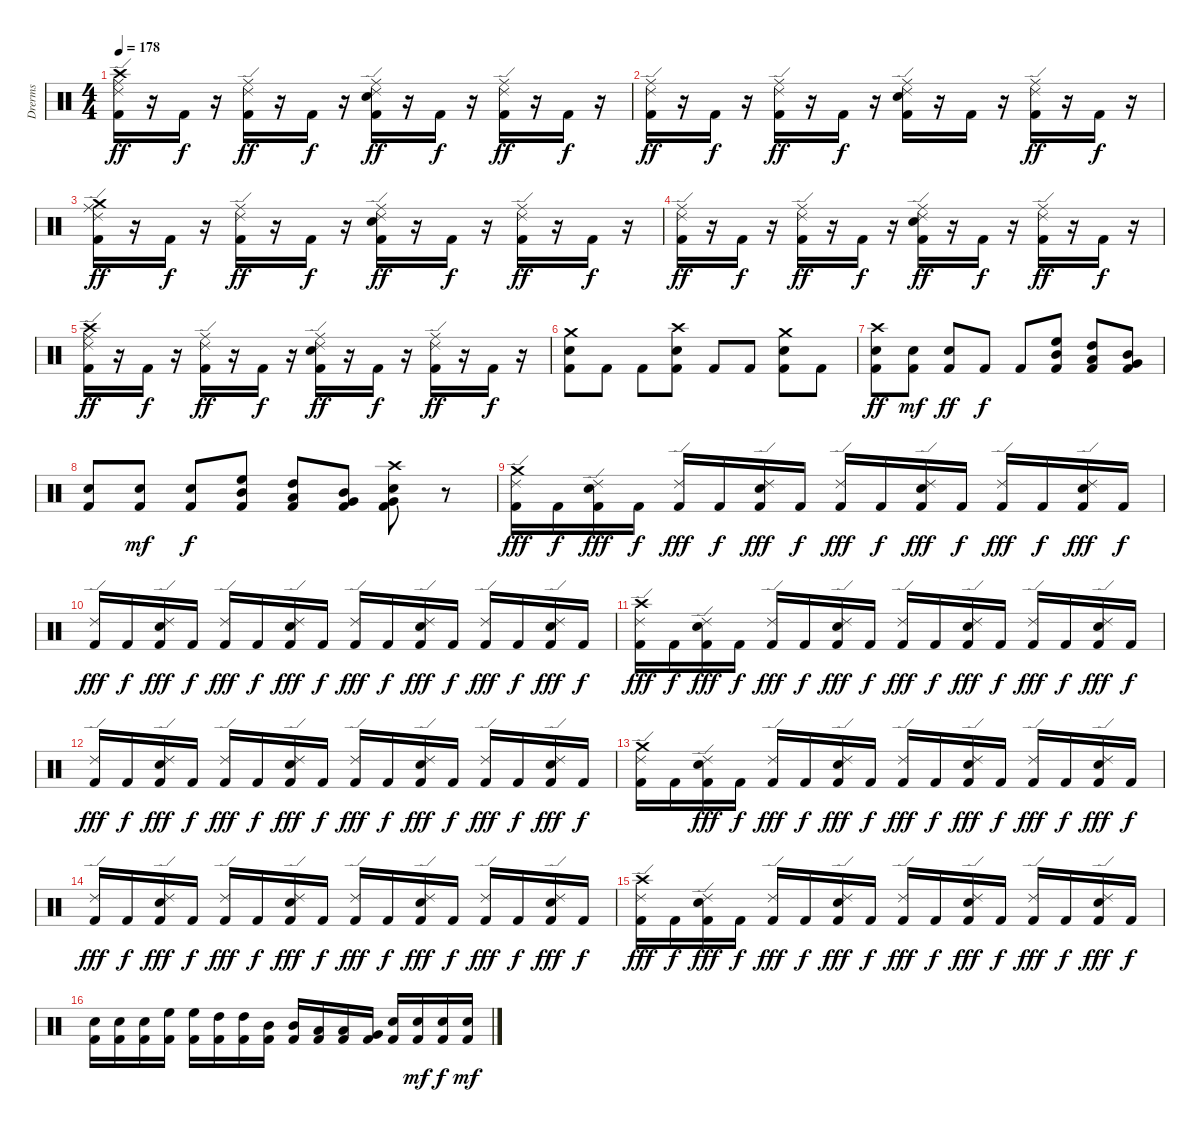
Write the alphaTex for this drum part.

\track ("Drerms" "Drerms") {instrument percussion}
\staff {score}
\articulation defaults
\ts (4 4)
\tempo 178
\clef neutral
\ks c
("Crash high (hit)" "Ride (middle)" "Ride (edge) 2" "Kick (hit) 2").16{dy ff} r.16 "Kick (hit) 2".16{dy f} r.16 ("Ride (middle)" "Ride (edge) 2" "Kick (hit) 2").16{dy ff} r.16 "Kick (hit) 2".16{dy f} r.16 ("Snare (hit) 2" "Ride (middle)" "Ride (edge) 2" "Kick (hit) 2").16{dy ff} r.16 "Kick (hit) 2".16{dy f} r.16 ("Ride (middle)" "Ride (edge) 2" "Kick (hit) 2").16{dy ff} r.16 "Kick (hit) 2".16{dy f} r.16 |
("Ride (middle)" "Ride (edge) 2" "Kick (hit) 2").16{dy ff} r.16 "Kick (hit) 2".16{dy f} r.16 ("Ride (middle)" "Ride (edge) 2" "Kick (hit) 2").16{dy ff} r.16 "Kick (hit) 2".16{dy f} r.16 ("Snare (hit) 2" "Ride (middle)" "Ride (edge) 2" "Kick (hit) 2").16 r.16 "Kick (hit) 2".16 r.16 ("Ride (middle)" "Ride (edge) 2" "Kick (hit) 2").16{dy ff} r.16 "Kick (hit) 2".16{dy f} r.16 |
("Crash medium (hit)" "Ride (middle)" "Ride (edge) 2" "Kick (hit) 2").16{dy ff} r.16 "Kick (hit) 2".16{dy f} r.16 ("Ride (middle)" "Ride (edge) 2" "Kick (hit) 2").16{dy ff} r.16 "Kick (hit) 2".16{dy f} r.16 ("Snare (hit) 2" "Ride (middle)" "Ride (edge) 2" "Kick (hit) 2").16{dy ff} r.16 "Kick (hit) 2".16{dy f} r.16 ("Ride (middle)" "Ride (edge) 2" "Kick (hit) 2").16{dy ff} r.16 "Kick (hit) 2".16{dy f} r.16 |
("Ride (middle)" "Ride (edge) 2" "Kick (hit) 2").16{dy ff} r.16 "Kick (hit) 2".16{dy f} r.16 ("Ride (middle)" "Ride (edge) 2" "Kick (hit) 2").16{dy ff} r.16 "Kick (hit) 2".16{dy f} r.16 ("Snare (hit) 2" "Ride (middle)" "Ride (edge) 2" "Kick (hit) 2").16{dy ff} r.16 "Kick (hit) 2".16{dy f} r.16 ("Ride (middle)" "Ride (edge) 2" "Kick (hit) 2").16{dy ff} r.16 "Kick (hit) 2".16{dy f} r.16 |
("Crash high (hit)" "Ride (middle)" "Ride (edge) 2" "Kick (hit) 2").16{dy ff} r.16 "Kick (hit) 2".16{dy f} r.16 ("Ride (middle)" "Ride (edge) 2" "Kick (hit) 2").16{dy ff} r.16 "Kick (hit) 2".16{dy f} r.16 ("Snare (hit) 2" "Ride (middle)" "Ride (edge) 2" "Kick (hit) 2").16{dy ff} r.16 "Kick (hit) 2".16{dy f} r.16 ("Ride (middle)" "Ride (edge) 2" "Kick (hit) 2").16{dy ff} r.16 "Kick (hit) 2".16{dy f} r.16 |
("Crash medium (hit)" "Snare (hit) 2" "Kick (hit) 2").8 "Kick (hit) 2".8 "Kick (hit) 2".8 ("Crash high (hit)" "Snare (hit) 2" "Kick (hit) 2").8 "Kick (hit) 2".8 "Kick (hit) 2".8 ("Crash medium (hit)" "Snare (hit) 2" "Kick (hit) 2").8 "Kick (hit) 2".8 |
("Crash high (hit)" "Snare (hit) 2" "Kick (hit) 2").8{dy ff} ("Snare (hit) 2" "Kick (hit) 2").8{dy mf} ("Snare (hit) 2" "Kick (hit) 2").8{dy ff} "Kick (hit) 2".8{dy f} "Kick (hit) 2".8 ("High Floor Tom (hit)" "Mid Tom (hit)" "Kick (hit) 2").8 ("High Tom (hit)" "Low Tom (hit)" "Kick (hit) 2").8 ("Mid Tom (hit)" "Very Low Tom (hit)" "Kick (hit) 2").8 |
("Snare (hit) 2" "Kick (hit) 2").8 ("Snare (hit) 2" "Kick (hit) 2").8{dy mf} ("Snare (hit) 2" "Kick (hit) 2").8{dy f} ("High Floor Tom (hit)" "Mid Tom (hit)" "Kick (hit) 2").8 ("High Tom (hit)" "Low Tom (hit)" "Kick (hit) 2").8 ("Mid Tom (hit)" "Very Low Tom (hit)" "Kick (hit) 2").8 ("Crash high (hit)" "Snare (hit) 2" "Very Low Tom (hit)" "Kick (hit) 2").8 r.8 |
("Crash medium (hit)" "Ride (edge) 2" "Kick (hit) 2").16{dy fff} "Kick (hit) 2".16{dy f} ("Snare (hit) 2" "Ride (edge) 2" "Kick (hit) 2").16{dy fff} "Kick (hit) 2".16{dy f} ("Ride (edge) 2" "Kick (hit) 2").16{dy fff} "Kick (hit) 2".16{dy f} ("Snare (hit) 2" "Ride (edge) 2" "Kick (hit) 2").16{dy fff} "Kick (hit) 2".16{dy f} ("Ride (edge) 2" "Kick (hit) 2").16{dy fff} "Kick (hit) 2".16{dy f} ("Snare (hit) 2" "Ride (edge) 2" "Kick (hit) 2").16{dy fff} "Kick (hit) 2".16{dy f} ("Ride (edge) 2" "Kick (hit) 2").16{dy fff} "Kick (hit) 2".16{dy f} ("Snare (hit) 2" "Ride (edge) 2" "Kick (hit) 2").16{dy fff} "Kick (hit) 2".16{dy f} |
("Ride (edge) 2" "Kick (hit) 2").16{dy fff} "Kick (hit) 2".16{dy f} ("Snare (hit) 2" "Ride (edge) 2" "Kick (hit) 2").16{dy fff} "Kick (hit) 2".16{dy f} ("Ride (edge) 2" "Kick (hit) 2").16{dy fff} "Kick (hit) 2".16{dy f} ("Snare (hit) 2" "Ride (edge) 2" "Kick (hit) 2").16{dy fff} "Kick (hit) 2".16{dy f} ("Ride (edge) 2" "Kick (hit) 2").16{dy fff} "Kick (hit) 2".16{dy f} ("Snare (hit) 2" "Ride (edge) 2" "Kick (hit) 2").16{dy fff} "Kick (hit) 2".16{dy f} ("Ride (edge) 2" "Kick (hit) 2").16{dy fff} "Kick (hit) 2".16{dy f} ("Snare (hit) 2" "Ride (edge) 2" "Kick (hit) 2").16{dy fff} "Kick (hit) 2".16{dy f} |
("Crash high (hit)" "Ride (edge) 2" "Kick (hit) 2").16{dy fff} "Kick (hit) 2".16{dy f} ("Snare (hit) 2" "Ride (edge) 2" "Kick (hit) 2").16{dy fff} "Kick (hit) 2".16{dy f} ("Ride (edge) 2" "Kick (hit) 2").16{dy fff} "Kick (hit) 2".16{dy f} ("Snare (hit) 2" "Ride (edge) 2" "Kick (hit) 2").16{dy fff} "Kick (hit) 2".16{dy f} ("Ride (edge) 2" "Kick (hit) 2").16{dy fff} "Kick (hit) 2".16{dy f} ("Snare (hit) 2" "Ride (edge) 2" "Kick (hit) 2").16{dy fff} "Kick (hit) 2".16{dy f} ("Ride (edge) 2" "Kick (hit) 2").16{dy fff} "Kick (hit) 2".16{dy f} ("Snare (hit) 2" "Ride (edge) 2" "Kick (hit) 2").16{dy fff} "Kick (hit) 2".16{dy f} |
("Ride (edge) 2" "Kick (hit) 2").16{dy fff} "Kick (hit) 2".16{dy f} ("Snare (hit) 2" "Ride (edge) 2" "Kick (hit) 2").16{dy fff} "Kick (hit) 2".16{dy f} ("Ride (edge) 2" "Kick (hit) 2").16{dy fff} "Kick (hit) 2".16{dy f} ("Snare (hit) 2" "Ride (edge) 2" "Kick (hit) 2").16{dy fff} "Kick (hit) 2".16{dy f} ("Ride (edge) 2" "Kick (hit) 2").16{dy fff} "Kick (hit) 2".16{dy f} ("Snare (hit) 2" "Ride (edge) 2" "Kick (hit) 2").16{dy fff} "Kick (hit) 2".16{dy f} ("Ride (edge) 2" "Kick (hit) 2").16{dy fff} "Kick (hit) 2".16{dy f} ("Snare (hit) 2" "Ride (edge) 2" "Kick (hit) 2").16{dy fff} "Kick (hit) 2".16{dy f} |
("Crash medium (hit)" "Ride (edge) 2" "Kick (hit) 2").16 "Kick (hit) 2".16 ("Snare (hit) 2" "Ride (edge) 2" "Kick (hit) 2").16{dy fff} "Kick (hit) 2".16{dy f} ("Ride (edge) 2" "Kick (hit) 2").16{dy fff} "Kick (hit) 2".16{dy f} ("Snare (hit) 2" "Ride (edge) 2" "Kick (hit) 2").16{dy fff} "Kick (hit) 2".16{dy f} ("Ride (edge) 2" "Kick (hit) 2").16{dy fff} "Kick (hit) 2".16{dy f} ("Snare (hit) 2" "Ride (edge) 2" "Kick (hit) 2").16{dy fff} "Kick (hit) 2".16{dy f} ("Ride (edge) 2" "Kick (hit) 2").16{dy fff} "Kick (hit) 2".16{dy f} ("Snare (hit) 2" "Ride (edge) 2" "Kick (hit) 2").16{dy fff} "Kick (hit) 2".16{dy f} |
("Ride (edge) 2" "Kick (hit) 2").16{dy fff} "Kick (hit) 2".16{dy f} ("Snare (hit) 2" "Ride (edge) 2" "Kick (hit) 2").16{dy fff} "Kick (hit) 2".16{dy f} ("Ride (edge) 2" "Kick (hit) 2").16{dy fff} "Kick (hit) 2".16{dy f} ("Snare (hit) 2" "Ride (edge) 2" "Kick (hit) 2").16{dy fff} "Kick (hit) 2".16{dy f} ("Ride (edge) 2" "Kick (hit) 2").16{dy fff} "Kick (hit) 2".16{dy f} ("Snare (hit) 2" "Ride (edge) 2" "Kick (hit) 2").16{dy fff} "Kick (hit) 2".16{dy f} ("Ride (edge) 2" "Kick (hit) 2").16{dy fff} "Kick (hit) 2".16{dy f} ("Snare (hit) 2" "Ride (edge) 2" "Kick (hit) 2").16{dy fff} "Kick (hit) 2".16{dy f} |
("Crash high (hit)" "Ride (edge) 2" "Kick (hit) 2").16{dy fff} "Kick (hit) 2".16{dy f} ("Snare (hit) 2" "Ride (edge) 2" "Kick (hit) 2").16{dy fff} "Kick (hit) 2".16{dy f} ("Ride (edge) 2" "Kick (hit) 2").16{dy fff} "Kick (hit) 2".16{dy f} ("Snare (hit) 2" "Ride (edge) 2" "Kick (hit) 2").16{dy fff} "Kick (hit) 2".16{dy f} ("Ride (edge) 2" "Kick (hit) 2").16{dy fff} "Kick (hit) 2".16{dy f} ("Snare (hit) 2" "Ride (edge) 2" "Kick (hit) 2").16{dy fff} "Kick (hit) 2".16{dy f} ("Ride (edge) 2" "Kick (hit) 2").16{dy fff} "Kick (hit) 2".16{dy f} ("Snare (hit) 2" "Ride (edge) 2" "Kick (hit) 2").16{dy fff} "Kick (hit) 2".16{dy f} |
("Snare (hit) 2" "Kick (hit) 2").16 ("Snare (hit) 2" "Kick (hit) 2").16 ("Snare (hit) 2" "Kick (hit) 2").16 ("High Floor Tom (hit)" "Kick (hit) 2").16 ("High Floor Tom (hit)" "Kick (hit) 2").16 ("High Tom (hit)" "Kick (hit) 2").16 ("High Tom (hit)" "Kick (hit) 2").16 ("Mid Tom (hit)" "Kick (hit) 2").16 ("Mid Tom (hit)" "Kick (hit) 2").16 ("Low Tom (hit)" "Kick (hit) 2").16 ("Low Tom (hit)" "Kick (hit) 2").16 ("Very Low Tom (hit)" "Kick (hit) 2").16 ("Snare (hit) 2" "Kick (hit) 2").16 ("Snare (hit) 2" "Kick (hit) 2").16{dy mf} ("Snare (hit) 2" "Kick (hit) 2").16{dy f} ("Snare (hit) 2" "Kick (hit) 2").16{dy mf}
